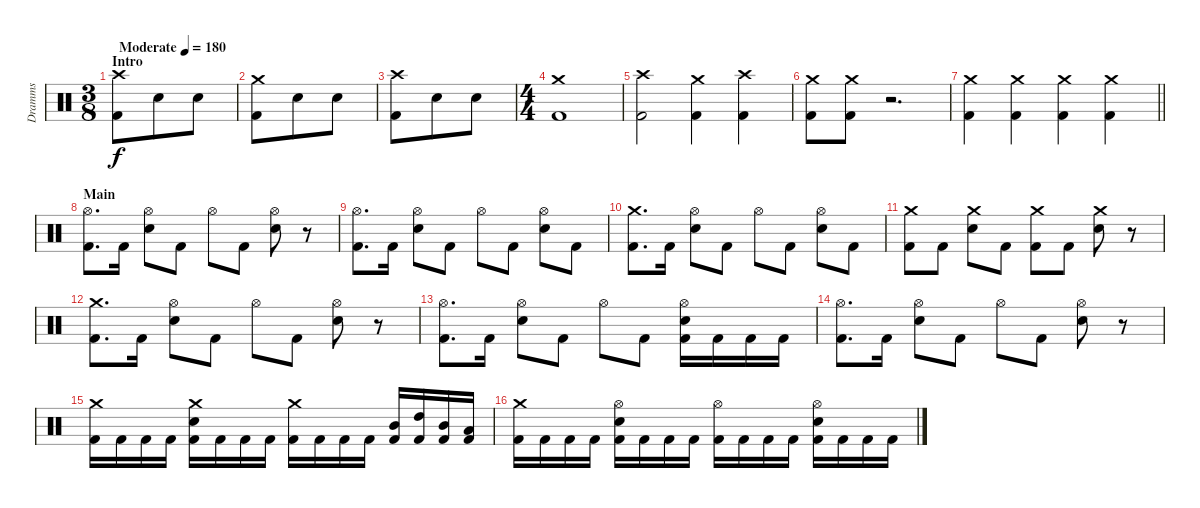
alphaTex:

\track ("Dramms" "Dramms") {instrument percussion}
\staff {score}
\articulation defaults
\ts (3 8)
\section ("" "Intro")
\tempo (180 "Moderate")
\clef neutral
\ks c
("Crash high (hit)" "Kick (hit) 2").8{dy f} "Electric Snare (hit)".8 "Electric Snare (hit)".8 |
("Crash medium (hit)" "Kick (hit) 2").8 "Electric Snare (hit)".8 "Electric Snare (hit)".8 |
("Crash high (hit)" "Kick (hit) 2").8 "Electric Snare (hit)".8 "Electric Snare (hit)".8 |
\ts (4 4)
("Crash medium (hit)" "Kick (hit) 2").1 |
("Crash high (hit)" "Kick (hit) 2").2 ("Crash medium (hit)" "Kick (hit) 2").4 ("Crash high (hit)" "Kick (hit) 2").4 |
("Crash medium (hit)" "Kick (hit) 2").8 ("Crash medium (hit)" "Kick (hit) 2").8 r.2{d} |
\barLineRight lightlight
("Crash medium (hit)" "Kick (hit) 2").4 ("Crash medium (hit)" "Kick (hit) 2").4 ("Crash medium (hit)" "Kick (hit) 2").4 ("Crash medium (hit)" "Kick (hit) 2").4 |
\section ("" "Main")
("Hi-Hat (open)" "Kick (hit) 2").8{d} "Kick (hit) 2".16 ("Hi-Hat (open)" "Electric Snare (hit)").8 "Kick (hit) 2".8 "Hi-Hat (open)".8 "Kick (hit) 2".8 ("Hi-Hat (open)" "Electric Snare (hit)").8 r.8 |
("Hi-Hat (open)" "Kick (hit) 2").8{d} "Kick (hit) 2".16 ("Hi-Hat (open)" "Electric Snare (hit)").8 "Kick (hit) 2".8 "Hi-Hat (open)".8 "Kick (hit) 2".8 ("Hi-Hat (open)" "Electric Snare (hit)").8 "Kick (hit) 2".8 |
("Crash medium (hit)" "Kick (hit) 2").8{d} "Kick (hit) 2".16 ("Hi-Hat (open)" "Electric Snare (hit)").8 "Kick (hit) 2".8 "Hi-Hat (open)".8 "Kick (hit) 2".8 ("Hi-Hat (open)" "Electric Snare (hit)").8 "Kick (hit) 2".8 |
("Crash medium (hit)" "Kick (hit) 2").8 "Kick (hit) 2".8 ("Crash medium (hit)" "Electric Snare (hit)").8 "Kick (hit) 2".8 ("Crash medium (hit)" "Kick (hit) 2").8 "Kick (hit) 2".8 ("Crash medium (hit)" "Electric Snare (hit)").8 r.8 |
("Crash medium (hit)" "Kick (hit) 2").8{d} "Kick (hit) 2".16 ("Hi-Hat (open)" "Electric Snare (hit)").8 "Kick (hit) 2".8 "Hi-Hat (open)".8 "Kick (hit) 2".8 ("Hi-Hat (open)" "Electric Snare (hit)").8 r.8 |
("Hi-Hat (open)" "Kick (hit) 2").8{d} "Kick (hit) 2".16 ("Hi-Hat (open)" "Electric Snare (hit)").8 "Kick (hit) 2".8 "Hi-Hat (open)".8 "Kick (hit) 2".8 ("Hi-Hat (open)" "Electric Snare (hit)" "Kick (hit) 2").16 "Kick (hit) 2".16 "Kick (hit) 2".16 "Kick (hit) 2".16 |
("Hi-Hat (open)" "Kick (hit) 2").8{d} "Kick (hit) 2".16 ("Hi-Hat (open)" "Electric Snare (hit)").8 "Kick (hit) 2".8 "Hi-Hat (open)".8 "Kick (hit) 2".8 ("Hi-Hat (open)" "Electric Snare (hit)").8 r.8 |
("Crash medium (hit)" "Kick (hit) 2").16 "Kick (hit) 2".16 "Kick (hit) 2".16 "Kick (hit) 2".16 ("Crash medium (hit)" "Electric Snare (hit)" "Kick (hit) 2").16 "Kick (hit) 2".16 "Kick (hit) 2".16 "Kick (hit) 2".16 ("Crash medium (hit)" "Kick (hit) 2").16 "Kick (hit) 2".16 "Kick (hit) 2".16 "Kick (hit) 2".16 ("Mid Tom (hit)" "Kick (hit) 2").16 ("High Tom (hit)" "Kick (hit) 2").16 ("Mid Tom (hit)" "Kick (hit) 2").16 ("Low Tom (hit)" "Kick (hit) 2").16 |
("Crash medium (hit)" "Kick (hit) 2").16 "Kick (hit) 2".16 "Kick (hit) 2".16 "Kick (hit) 2".16 ("Hi-Hat (open)" "Electric Snare (hit)" "Kick (hit) 2").16 "Kick (hit) 2".16 "Kick (hit) 2".16 "Kick (hit) 2".16 ("Hi-Hat (open)" "Kick (hit) 2").16 "Kick (hit) 2".16 "Kick (hit) 2".16 "Kick (hit) 2".16 ("Hi-Hat (open)" "Electric Snare (hit)" "Kick (hit) 2").16 "Kick (hit) 2".16 "Kick (hit) 2".16 "Kick (hit) 2".16
